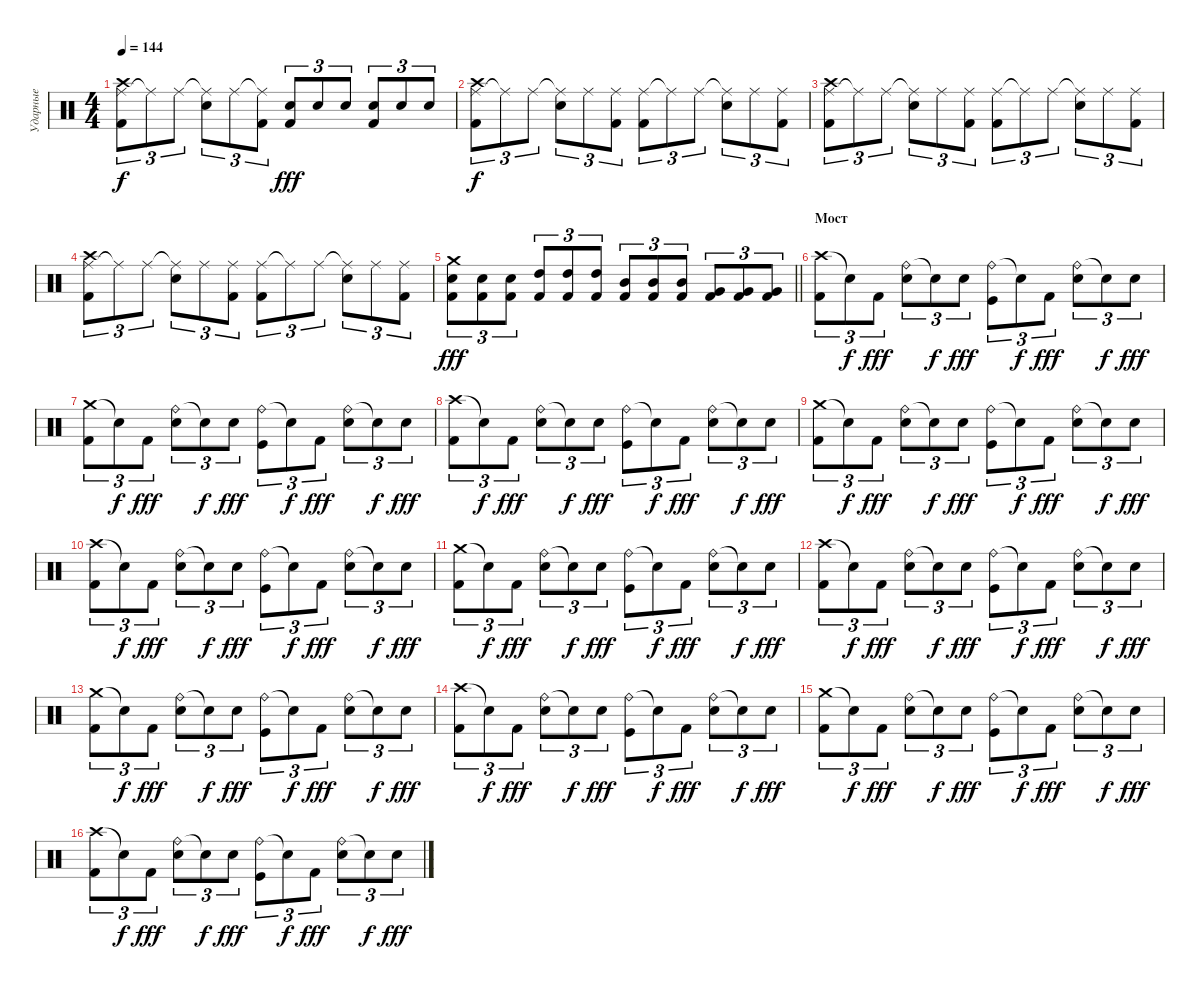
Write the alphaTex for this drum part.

\track ("Ударные" "Ударные") {instrument percussion}
\staff {score}
\articulation defaults
\ts (4 4)
\tempo 144
\clef neutral
\ks c
("Ride (middle)" "Kick (hit) 2" "Crash high (hit)").8{tu (3 2) dy f} "Ride (middle)"{t}.8{tu (3 2)} "Ride (middle)".8{tu (3 2)} ("Ride (middle)"{t} "Snare (hit) 2").8{tu (3 2)} "Ride (middle)".8{tu (3 2)} ("Ride (middle)"{t} "Kick (hit) 2").8{tu (3 2)} ("Snare (hit) 2" "Kick (hit) 2").8{tu (3 2) dy fff} "Snare (hit) 2".8{tu (3 2)} "Snare (hit) 2".8{tu (3 2)} ("Snare (hit) 2" "Kick (hit) 2").8{tu (3 2)} "Snare (hit) 2".8{tu (3 2)} "Snare (hit) 2".8{tu (3 2)} |
("Ride (middle)" "Kick (hit) 2" "Crash high (hit)").8{tu (3 2) dy f} "Ride (middle)"{t}.8{tu (3 2)} "Ride (middle)".8{tu (3 2)} ("Ride (middle)"{t} "Snare (hit) 2").8{tu (3 2)} "Ride (middle)".8{tu (3 2)} ("Ride (middle)" "Kick (hit) 2").8{tu (3 2)} ("Ride (middle)" "Kick (hit) 2").8{tu (3 2)} "Ride (middle)"{t}.8{tu (3 2)} "Ride (middle)".8{tu (3 2)} ("Ride (middle)"{t} "Snare (hit) 2").8{tu (3 2)} "Ride (middle)".8{tu (3 2)} ("Ride (middle)" "Kick (hit) 2").8{tu (3 2)} |
("Ride (middle)" "Kick (hit) 2" "Crash high (hit)").8{tu (3 2)} "Ride (middle)"{t}.8{tu (3 2)} "Ride (middle)".8{tu (3 2)} ("Ride (middle)"{t} "Snare (hit) 2").8{tu (3 2)} "Ride (middle)".8{tu (3 2)} ("Ride (middle)" "Kick (hit) 2").8{tu (3 2)} ("Ride (middle)" "Kick (hit) 2").8{tu (3 2)} "Ride (middle)"{t}.8{tu (3 2)} "Ride (middle)".8{tu (3 2)} ("Ride (middle)"{t} "Snare (hit) 2").8{tu (3 2)} "Ride (middle)".8{tu (3 2)} ("Ride (middle)" "Kick (hit) 2").8{tu (3 2)} |
("Ride (middle)" "Kick (hit) 2" "Crash high (hit)").8{tu (3 2)} "Ride (middle)"{t}.8{tu (3 2)} "Ride (middle)".8{tu (3 2)} ("Ride (middle)"{t} "Snare (hit) 2").8{tu (3 2)} "Ride (middle)".8{tu (3 2)} ("Ride (middle)" "Kick (hit) 2").8{tu (3 2)} ("Ride (middle)" "Kick (hit) 2").8{tu (3 2)} "Ride (middle)"{t}.8{tu (3 2)} "Ride (middle)".8{tu (3 2)} ("Ride (middle)"{t} "Snare (hit) 2").8{tu (3 2)} "Ride (middle)".8{tu (3 2)} ("Ride (middle)" "Kick (hit) 2").8{tu (3 2)} |
\barLineRight lightlight
("Snare (hit) 2" "Crash medium (hit)" "Kick (hit) 2").8{tu (3 2) dy fff} ("Snare (hit) 2" "Kick (hit) 2").8{tu (3 2)} ("Snare (hit) 2" "Kick (hit) 2").8{tu (3 2)} ("High Tom (hit)" "Kick (hit) 2").8{tu (3 2)} ("High Tom (hit)" "Kick (hit) 2").8{tu (3 2)} ("High Tom (hit)" "Kick (hit) 2").8{tu (3 2)} ("Mid Tom (hit)" "Kick (hit) 2").8{tu (3 2)} ("Mid Tom (hit)" "Kick (hit) 2").8{tu (3 2)} ("Mid Tom (hit)" "Kick (hit) 2").8{tu (3 2)} ("Very Low Tom (hit)" "Kick (hit) 2").8{tu (3 2)} ("Very Low Tom (hit)" "Kick (hit) 2").8{tu (3 2)} ("Very Low Tom (hit)" "Kick (hit) 2").8{tu (3 2)} |
\section ("" "Мост")
("Crash high (hit)" "Kick (hit) 2").8{tu (3 2)} "Snare (hit)"{t}.8{tu (3 2) dy f} "Kick (hit) 2".8{tu (3 2) dy fff} ("Ride (bell)" "Snare (hit) 2").8{tu (3 2)} "Snare (hit)"{t}.8{tu (3 2) dy f} "Snare (hit) 2".8{tu (3 2) dy fff} ("Ride (bell)" "Kick (hit)").8{tu (3 2)} "Snare (hit)"{t}.8{tu (3 2) dy f} "Kick (hit) 2".8{tu (3 2) dy fff} ("Ride (bell)" "Snare (hit) 2").8{tu (3 2)} "Snare (hit)"{t}.8{tu (3 2) dy f} "Snare (hit) 2".8{tu (3 2) dy fff} |
("Crash medium (hit)" "Kick (hit) 2").8{tu (3 2)} "Snare (hit)"{t}.8{tu (3 2) dy f} "Kick (hit) 2".8{tu (3 2) dy fff} ("Ride (bell)" "Snare (hit) 2").8{tu (3 2)} "Snare (hit)"{t}.8{tu (3 2) dy f} "Snare (hit) 2".8{tu (3 2) dy fff} ("Ride (bell)" "Kick (hit)").8{tu (3 2)} "Snare (hit)"{t}.8{tu (3 2) dy f} "Kick (hit) 2".8{tu (3 2) dy fff} ("Ride (bell)" "Snare (hit) 2").8{tu (3 2)} "Snare (hit)"{t}.8{tu (3 2) dy f} "Snare (hit) 2".8{tu (3 2) dy fff} |
("Crash high (hit)" "Kick (hit) 2").8{tu (3 2)} "Snare (hit)"{t}.8{tu (3 2) dy f} "Kick (hit) 2".8{tu (3 2) dy fff} ("Ride (bell)" "Snare (hit) 2").8{tu (3 2)} "Snare (hit)"{t}.8{tu (3 2) dy f} "Snare (hit) 2".8{tu (3 2) dy fff} ("Ride (bell)" "Kick (hit)").8{tu (3 2)} "Snare (hit)"{t}.8{tu (3 2) dy f} "Kick (hit) 2".8{tu (3 2) dy fff} ("Ride (bell)" "Snare (hit) 2").8{tu (3 2)} "Snare (hit)"{t}.8{tu (3 2) dy f} "Snare (hit) 2".8{tu (3 2) dy fff} |
("Crash medium (hit)" "Kick (hit) 2").8{tu (3 2)} "Snare (hit)"{t}.8{tu (3 2) dy f} "Kick (hit) 2".8{tu (3 2) dy fff} ("Ride (bell)" "Snare (hit) 2").8{tu (3 2)} "Snare (hit)"{t}.8{tu (3 2) dy f} "Snare (hit) 2".8{tu (3 2) dy fff} ("Ride (bell)" "Kick (hit)").8{tu (3 2)} "Snare (hit)"{t}.8{tu (3 2) dy f} "Kick (hit) 2".8{tu (3 2) dy fff} ("Ride (bell)" "Snare (hit) 2").8{tu (3 2)} "Snare (hit)"{t}.8{tu (3 2) dy f} "Snare (hit) 2".8{tu (3 2) dy fff} |
("Crash high (hit)" "Kick (hit) 2").8{tu (3 2)} "Snare (hit)"{t}.8{tu (3 2) dy f} "Kick (hit) 2".8{tu (3 2) dy fff} ("Ride (bell)" "Snare (hit) 2").8{tu (3 2)} "Snare (hit)"{t}.8{tu (3 2) dy f} "Snare (hit) 2".8{tu (3 2) dy fff} ("Ride (bell)" "Kick (hit)").8{tu (3 2)} "Snare (hit)"{t}.8{tu (3 2) dy f} "Kick (hit) 2".8{tu (3 2) dy fff} ("Ride (bell)" "Snare (hit) 2").8{tu (3 2)} "Snare (hit)"{t}.8{tu (3 2) dy f} "Snare (hit) 2".8{tu (3 2) dy fff} |
("Crash medium (hit)" "Kick (hit) 2").8{tu (3 2)} "Snare (hit)"{t}.8{tu (3 2) dy f} "Kick (hit) 2".8{tu (3 2) dy fff} ("Ride (bell)" "Snare (hit) 2").8{tu (3 2)} "Snare (hit)"{t}.8{tu (3 2) dy f} "Snare (hit) 2".8{tu (3 2) dy fff} ("Ride (bell)" "Kick (hit)").8{tu (3 2)} "Snare (hit)"{t}.8{tu (3 2) dy f} "Kick (hit) 2".8{tu (3 2) dy fff} ("Ride (bell)" "Snare (hit) 2").8{tu (3 2)} "Snare (hit)"{t}.8{tu (3 2) dy f} "Snare (hit) 2".8{tu (3 2) dy fff} |
("Crash high (hit)" "Kick (hit) 2").8{tu (3 2)} "Snare (hit)"{t}.8{tu (3 2) dy f} "Kick (hit) 2".8{tu (3 2) dy fff} ("Ride (bell)" "Snare (hit) 2").8{tu (3 2)} "Snare (hit)"{t}.8{tu (3 2) dy f} "Snare (hit) 2".8{tu (3 2) dy fff} ("Ride (bell)" "Kick (hit)").8{tu (3 2)} "Snare (hit)"{t}.8{tu (3 2) dy f} "Kick (hit) 2".8{tu (3 2) dy fff} ("Ride (bell)" "Snare (hit) 2").8{tu (3 2)} "Snare (hit)"{t}.8{tu (3 2) dy f} "Snare (hit) 2".8{tu (3 2) dy fff} |
("Crash medium (hit)" "Kick (hit) 2").8{tu (3 2)} "Snare (hit)"{t}.8{tu (3 2) dy f} "Kick (hit) 2".8{tu (3 2) dy fff} ("Ride (bell)" "Snare (hit) 2").8{tu (3 2)} "Snare (hit)"{t}.8{tu (3 2) dy f} "Snare (hit) 2".8{tu (3 2) dy fff} ("Ride (bell)" "Kick (hit)").8{tu (3 2)} "Snare (hit)"{t}.8{tu (3 2) dy f} "Kick (hit) 2".8{tu (3 2) dy fff} ("Ride (bell)" "Snare (hit) 2").8{tu (3 2)} "Snare (hit)"{t}.8{tu (3 2) dy f} "Snare (hit) 2".8{tu (3 2) dy fff} |
("Crash high (hit)" "Kick (hit) 2").8{tu (3 2)} "Snare (hit)"{t}.8{tu (3 2) dy f} "Kick (hit) 2".8{tu (3 2) dy fff} ("Ride (bell)" "Snare (hit) 2").8{tu (3 2)} "Snare (hit)"{t}.8{tu (3 2) dy f} "Snare (hit) 2".8{tu (3 2) dy fff} ("Ride (bell)" "Kick (hit)").8{tu (3 2)} "Snare (hit)"{t}.8{tu (3 2) dy f} "Kick (hit) 2".8{tu (3 2) dy fff} ("Ride (bell)" "Snare (hit) 2").8{tu (3 2)} "Snare (hit)"{t}.8{tu (3 2) dy f} "Snare (hit) 2".8{tu (3 2) dy fff} |
("Crash medium (hit)" "Kick (hit) 2").8{tu (3 2)} "Snare (hit)"{t}.8{tu (3 2) dy f} "Kick (hit) 2".8{tu (3 2) dy fff} ("Ride (bell)" "Snare (hit) 2").8{tu (3 2)} "Snare (hit)"{t}.8{tu (3 2) dy f} "Snare (hit) 2".8{tu (3 2) dy fff} ("Ride (bell)" "Kick (hit)").8{tu (3 2)} "Snare (hit)"{t}.8{tu (3 2) dy f} "Kick (hit) 2".8{tu (3 2) dy fff} ("Ride (bell)" "Snare (hit) 2").8{tu (3 2)} "Snare (hit)"{t}.8{tu (3 2) dy f} "Snare (hit) 2".8{tu (3 2) dy fff} |
("Crash high (hit)" "Kick (hit) 2").8{tu (3 2)} "Snare (hit)"{t}.8{tu (3 2) dy f} "Kick (hit) 2".8{tu (3 2) dy fff} ("Ride (bell)" "Snare (hit) 2").8{tu (3 2)} "Snare (hit)"{t}.8{tu (3 2) dy f} "Snare (hit) 2".8{tu (3 2) dy fff} ("Ride (bell)" "Kick (hit)").8{tu (3 2)} "Snare (hit)"{t}.8{tu (3 2) dy f} "Kick (hit) 2".8{tu (3 2) dy fff} ("Ride (bell)" "Snare (hit) 2").8{tu (3 2)} "Snare (hit)"{t}.8{tu (3 2) dy f} "Snare (hit) 2".8{tu (3 2) dy fff}
